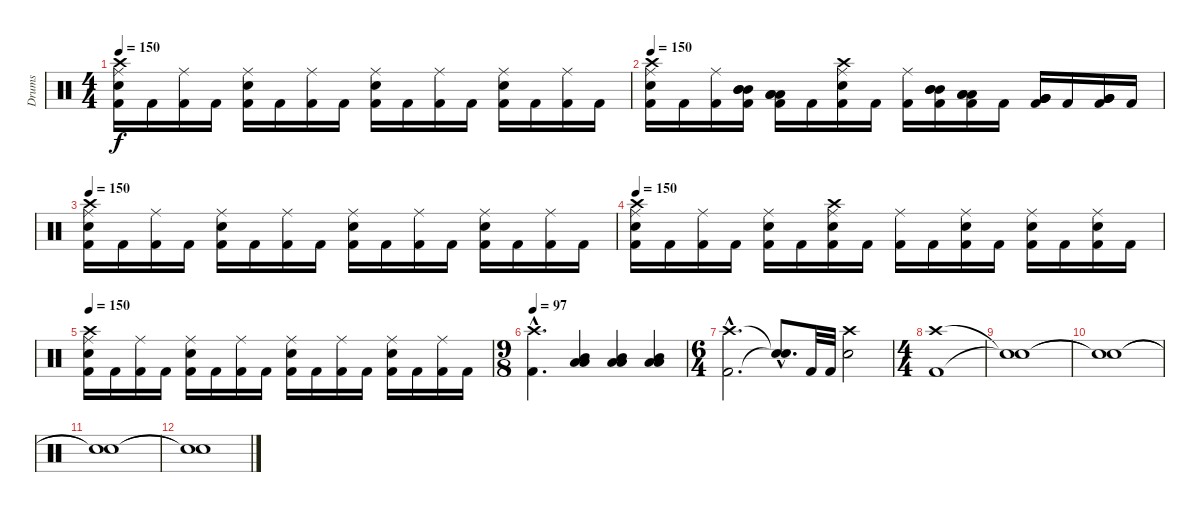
\track ("Drums" "Drums") {instrument percussion}
\staff {score}
\articulation defaults
\ts (4 4)
\tempo 150
\clef neutral
\ks c
("Kick (hit) 2" "Electric Snare (hit)" "Ride (middle)" "Crash high (hit)").16{dy f} "Kick (hit) 2".16 ("Kick (hit) 2" "Ride (middle)").16 "Kick (hit) 2".16 ("Kick (hit) 2" "Electric Snare (hit)" "Ride (middle)").16 "Kick (hit) 2".16 ("Kick (hit) 2" "Ride (middle)").16 "Kick (hit) 2".16 ("Kick (hit) 2" "Electric Snare (hit)" "Ride (middle)").16 "Kick (hit) 2".16 ("Kick (hit) 2" "Ride (middle)").16 "Kick (hit) 2".16 ("Kick (hit) 2" "Electric Snare (hit)" "Ride (middle)").16 "Kick (hit) 2".16 ("Kick (hit) 2" "Ride (middle)").16 "Kick (hit) 2".16 |
\tempo 150
("Kick (hit) 2" "Electric Snare (hit)" "Ride (middle)" "Crash high (hit)").16 "Kick (hit) 2".16 ("Kick (hit) 2" "Ride (middle)").16 ("Kick (hit) 2" "Mid Tom (hit)" "Mid Tom (hit)" "Mid Tom (hit)").16 ("Kick (hit) 2" "Low Tom (hit)" "Low Tom (hit)" "Low Tom (hit)").16 "Kick (hit) 2".16 ("Kick (hit) 2" "Electric Snare (hit)" "Ride (middle)" "Crash high (hit)").16 "Kick (hit) 2".16 ("Kick (hit) 2" "Ride (middle)").16 ("Kick (hit) 2" "Mid Tom (hit)" "Mid Tom (hit)" "Mid Tom (hit)").16 ("Kick (hit) 2" "Low Tom (hit)" "Low Tom (hit)" "Low Tom (hit)").16 "Kick (hit) 2".16 ("Kick (hit) 2" "Very Low Tom (hit)" "Very Low Tom (hit)" "Very Low Tom (hit)").16 "Kick (hit) 2".16 ("Kick (hit) 2" "Very Low Tom (hit)" "Very Low Tom (hit)" "Very Low Tom (hit)").16 "Kick (hit) 2".16 |
\tempo 150
("Kick (hit) 2" "Electric Snare (hit)" "Ride (middle)" "Crash high (hit)").16 "Kick (hit) 2".16 ("Kick (hit) 2" "Ride (middle)").16 "Kick (hit) 2".16 ("Kick (hit) 2" "Electric Snare (hit)" "Ride (middle)").16 "Kick (hit) 2".16 ("Kick (hit) 2" "Ride (middle)").16 "Kick (hit) 2".16 ("Kick (hit) 2" "Electric Snare (hit)" "Ride (middle)").16 "Kick (hit) 2".16 ("Kick (hit) 2" "Ride (middle)").16 "Kick (hit) 2".16 ("Kick (hit) 2" "Electric Snare (hit)" "Ride (middle)").16 "Kick (hit) 2".16 ("Kick (hit) 2" "Ride (middle)").16 "Kick (hit) 2".16 |
\tempo 150
("Kick (hit) 2" "Electric Snare (hit)" "Ride (middle)" "Crash high (hit)").16 "Kick (hit) 2".16 ("Kick (hit) 2" "Ride (middle)").16 "Kick (hit) 2".16 ("Kick (hit) 2" "Electric Snare (hit)" "Ride (middle)").16 "Kick (hit) 2".16 ("Kick (hit) 2" "Electric Snare (hit)" "Ride (middle)" "Crash high (hit)").16 "Kick (hit) 2".16 ("Kick (hit) 2" "Ride (middle)").16 "Kick (hit) 2".16 ("Kick (hit) 2" "Electric Snare (hit)" "Ride (middle)").16 "Kick (hit) 2".16 ("Kick (hit) 2" "Electric Snare (hit)" "Ride (middle)").16 "Kick (hit) 2".16 ("Kick (hit) 2" "Electric Snare (hit)" "Ride (middle)").16 "Kick (hit) 2".16 |
\tempo 150
("Kick (hit) 2" "Electric Snare (hit)" "Ride (middle)" "Crash high (hit)").16 "Kick (hit) 2".16 ("Kick (hit) 2" "Ride (middle)").16 "Kick (hit) 2".16 ("Kick (hit) 2" "Electric Snare (hit)" "Ride (middle)").16 "Kick (hit) 2".16 ("Kick (hit) 2" "Ride (middle)").16 "Kick (hit) 2".16 ("Kick (hit) 2" "Electric Snare (hit)" "Ride (middle)").16 "Kick (hit) 2".16 ("Kick (hit) 2" "Ride (middle)").16 "Kick (hit) 2".16 ("Kick (hit) 2" "Electric Snare (hit)" "Ride (middle)").16 "Kick (hit) 2".16 ("Kick (hit) 2" "Ride (middle)").16 "Kick (hit) 2".16 |
\ts (9 8)
\tempo 97
("Kick (hit) 2"{hac} "Crash high (hit)"{hac}).4{d} ("Mid Tom (hit)" "Low Tom (hit)" "Low Tom (hit)").4 ("Mid Tom (hit)" "Low Tom (hit)" "Low Tom (hit)").4 ("Mid Tom (hit)" "Low Tom (hit)" "Low Tom (hit)").4 |
\ts (6 4)
("Kick (hit) 2"{hac} "Crash high (hit)"{hac}).2{d} ("Snare (hit)"{hac t} "Snare (hit)"{hac t}).8{d} "Kick (hit) 2".32 "Kick (hit) 2".32 ("Electric Snare (hit)" "Crash high (hit)").2 |
\ts (4 4)
("Kick (hit) 2" "Crash high (hit)").1 |
("Snare (hit)"{t} "Snare (hit)"{t}).1 |
("Snare (hit)"{t} "Snare (hit)"{t}).1 |
("Snare (hit)"{t} "Snare (hit)"{t}).1 |
("Snare (hit)"{t} "Snare (hit)"{t}).1
